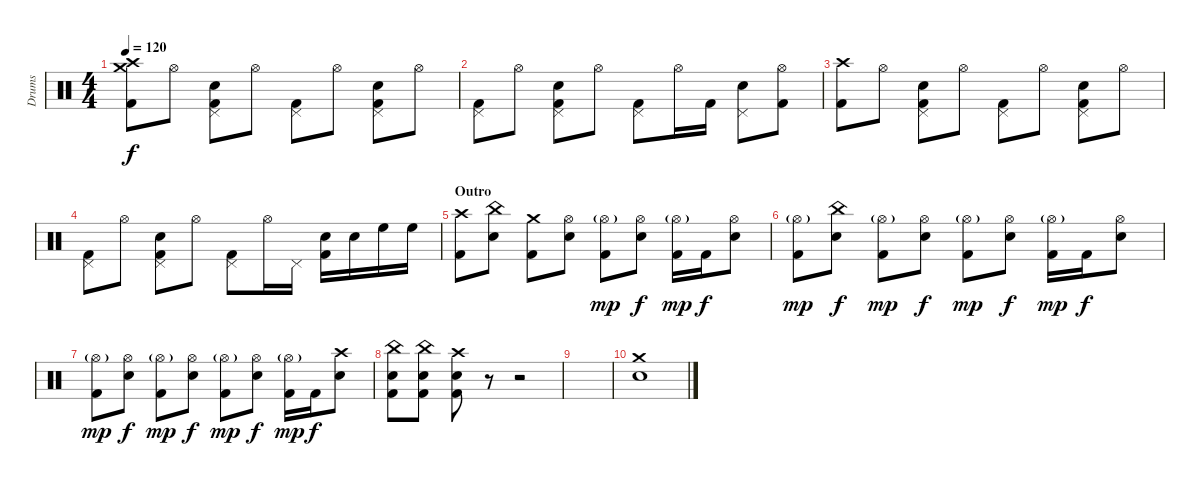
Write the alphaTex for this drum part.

\track ("Drums" "Drums") {instrument percussion}
\staff {score}
\articulation defaults
\ts (4 4)
\tempo 120
\clef neutral
\ks c
("Crash high (hit)" "Crash medium (hit)" "Kick (hit) 2").8{dy f} "Hi-Hat (open)".8 ("Pedal Hi-Hat (hit)" "Electric Snare (hit)" "Kick (hit) 2").8 "Hi-Hat (open)".8 ("Pedal Hi-Hat (hit)" "Kick (hit) 2").8 "Hi-Hat (open)".8 ("Pedal Hi-Hat (hit)" "Electric Snare (hit)" "Kick (hit) 2").8 "Hi-Hat (open)".8 |
("Pedal Hi-Hat (hit)" "Kick (hit) 2").8 "Hi-Hat (open)".8 ("Pedal Hi-Hat (hit)" "Electric Snare (hit)" "Kick (hit) 2").8 "Hi-Hat (open)".8 ("Pedal Hi-Hat (hit)" "Kick (hit) 2").8 "Hi-Hat (open)".16 "Kick (hit) 2".16 ("Pedal Hi-Hat (hit)" "Electric Snare (hit)").8 ("Hi-Hat (open)" "Kick (hit) 2").8 |
("Crash high (hit)" "Kick (hit) 2").8 "Hi-Hat (open)".8 ("Pedal Hi-Hat (hit)" "Electric Snare (hit)" "Kick (hit) 2").8 "Hi-Hat (open)".8 ("Pedal Hi-Hat (hit)" "Kick (hit) 2").8 "Hi-Hat (open)".8 ("Pedal Hi-Hat (hit)" "Electric Snare (hit)" "Kick (hit) 2").8 "Hi-Hat (open)".8 |
("Pedal Hi-Hat (hit)" "Kick (hit) 2").8 "Hi-Hat (open)".8 ("Pedal Hi-Hat (hit)" "Electric Snare (hit)" "Kick (hit) 2").8 "Hi-Hat (open)".8 ("Pedal Hi-Hat (hit)" "Kick (hit) 2").8 "Hi-Hat (open)".16 "Pedal Hi-Hat (hit)".16 ("Electric Snare (hit)" "Kick (hit) 2").16 "Electric Snare (hit)".16 "High Floor Tom (hit)".16 "High Floor Tom (hit)".16 |
\section ("" "Outro")
("Crash high (hit)" "Kick (hit) 2").8 ("China (hit)" "Electric Snare (hit)").8 ("Crash medium (hit)" "Kick (hit) 2").8 ("Hi-Hat (open)" "Electric Snare (hit)").8 ("Hi-Hat (open)"{g} "Kick (hit) 2").8{dy mp} ("Hi-Hat (open)" "Electric Snare (hit)").8{dy f} ("Hi-Hat (open)"{g} "Kick (hit) 2").16{dy mp} "Kick (hit) 2".16{dy f} ("Hi-Hat (open)" "Electric Snare (hit)").8 |
("Hi-Hat (open)"{g} "Kick (hit) 2").8{dy mp} ("China (hit)" "Electric Snare (hit)").8{dy f} ("Hi-Hat (open)"{g} "Kick (hit) 2").8{dy mp} ("Hi-Hat (open)" "Electric Snare (hit)").8{dy f} ("Hi-Hat (open)"{g} "Kick (hit) 2").8{dy mp} ("Hi-Hat (open)" "Electric Snare (hit)").8{dy f} ("Hi-Hat (open)"{g} "Kick (hit) 2").16{dy mp} "Kick (hit) 2".16{dy f} ("Hi-Hat (open)" "Electric Snare (hit)").8 |
("Hi-Hat (open)"{g} "Kick (hit) 2").8{dy mp} ("Hi-Hat (open)" "Electric Snare (hit)").8{dy f} ("Hi-Hat (open)"{g} "Kick (hit) 2").8{dy mp} ("Hi-Hat (open)" "Electric Snare (hit)").8{dy f} ("Hi-Hat (open)"{g} "Kick (hit) 2").8{dy mp} ("Hi-Hat (open)" "Electric Snare (hit)").8{dy f} ("Hi-Hat (open)"{g} "Kick (hit) 2").16{dy mp} "Kick (hit) 2".16{dy f} ("Crash high (hit)" "Electric Snare (hit)").8 |
("China (hit)" "Electric Snare (hit)" "Kick (hit) 2").8 ("China (hit)" "Electric Snare (hit)" "Kick (hit) 2").8 ("Crash high (hit)" "Electric Snare (hit)" "Kick (hit) 2").8 r.8 r.2 |
|
("Crash medium (hit)" "Electric Snare (hit)").1
